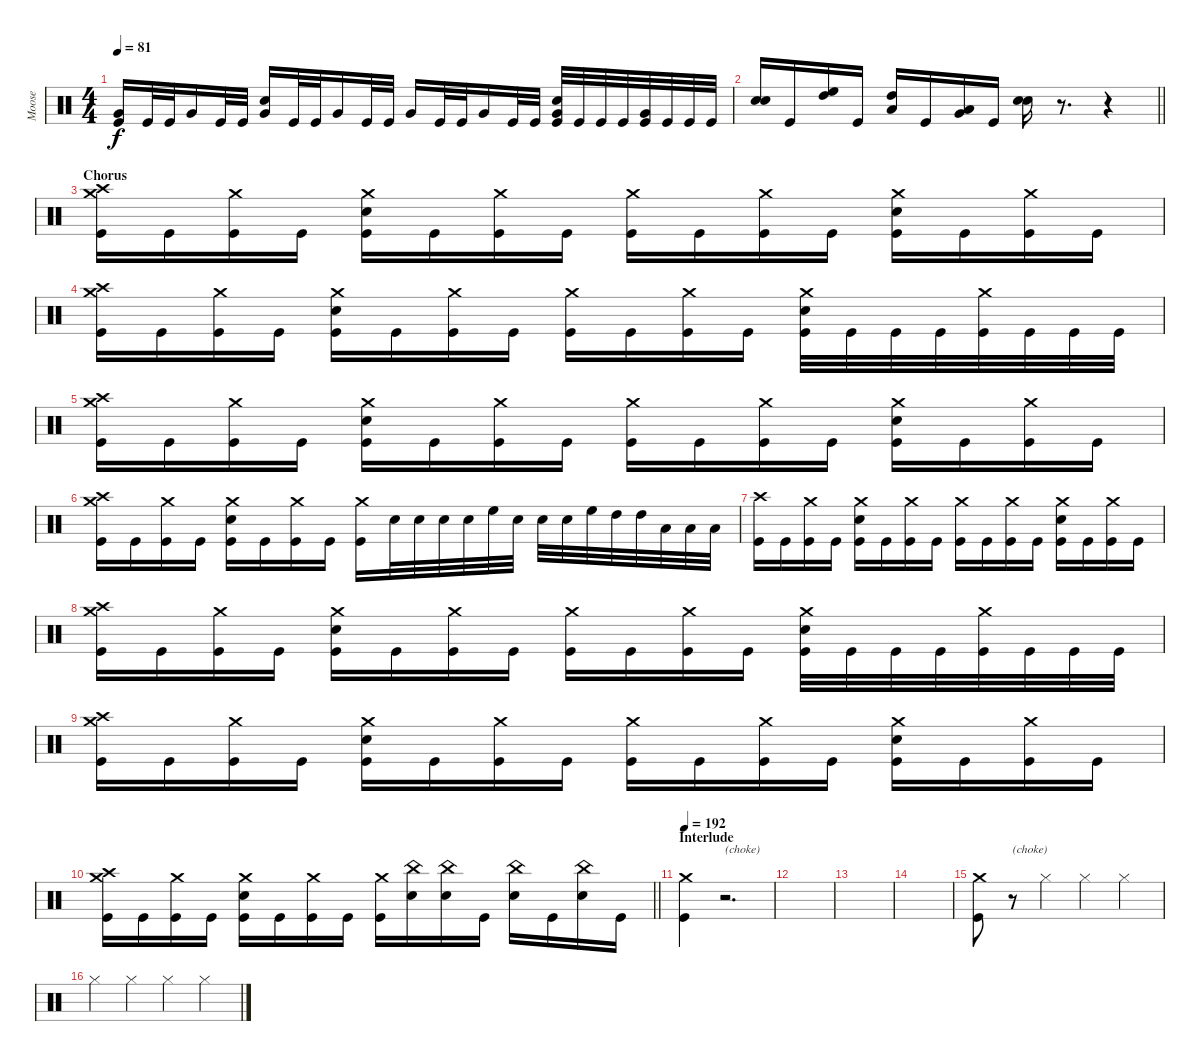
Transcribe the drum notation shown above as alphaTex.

\track ("Moose" "Moose") {instrument percussion}
\staff {score}
\articulation defaults
\ts (4 4)
\tempo 81
\clef neutral
\ks c
("Very Low Tom (hit)" "Kick (hit)").16{dy f} "Kick (hit)".32 "Kick (hit)".32 "Very Low Tom (hit)".16 "Kick (hit)".32 "Kick (hit)".32 ("Electric Snare (hit)" "Very Low Tom (hit)").16 "Kick (hit)".32 "Kick (hit)".32 "Very Low Tom (hit)".16 "Kick (hit)".32 "Kick (hit)".32 "Very Low Tom (hit)".16 "Kick (hit)".32 "Kick (hit)".32 "Very Low Tom (hit)".16 "Kick (hit)".32 "Kick (hit)".32 ("Electric Snare (hit)" "Very Low Tom (hit)" "Kick (hit)").32 "Kick (hit)".32 "Kick (hit)".32 "Kick (hit)".32 ("Very Low Tom (hit)" "Kick (hit)").32 "Kick (hit)".32 "Kick (hit)".32 "Kick (hit)".32 |
\barLineRight lightlight
("Electric Snare (hit)" "Electric Snare (hit)").16{bd 120} "Kick (hit)".16 ("High Floor Tom (hit)" "High Tom (hit)").16{bd 120} "Kick (hit)".16 ("High Tom (hit)" "Low Tom (hit)").16{bd 120} "Kick (hit)".16 ("Low Tom (hit)" "Very Low Tom (hit)").16{bd 120} "Kick (hit)".16 ("Electric Snare (hit)" "Electric Snare (hit)").16{bd 120} r.8{d} r.4 |
\section ("" "Chorus")
("Crash high (hit)" "Crash medium (hit)" "Kick (hit)").16 "Kick (hit)".16 ("Crash medium (hit)" "Kick (hit)").16 "Kick (hit)".16 ("Crash medium (hit)" "Electric Snare (hit)" "Kick (hit)").16 "Kick (hit)".16 ("Crash medium (hit)" "Kick (hit)").16 "Kick (hit)".16 ("Crash medium (hit)" "Kick (hit)").16 "Kick (hit)".16 ("Crash medium (hit)" "Kick (hit)").16 "Kick (hit)".16 ("Crash medium (hit)" "Electric Snare (hit)" "Kick (hit)").16 "Kick (hit)".16 ("Crash medium (hit)" "Kick (hit)").16 "Kick (hit)".16 |
("Crash high (hit)" "Crash medium (hit)" "Kick (hit)").16 "Kick (hit)".16 ("Crash medium (hit)" "Kick (hit)").16 "Kick (hit)".16 ("Crash medium (hit)" "Electric Snare (hit)" "Kick (hit)").16 "Kick (hit)".16 ("Crash medium (hit)" "Kick (hit)").16 "Kick (hit)".16 ("Crash medium (hit)" "Kick (hit)").16 "Kick (hit)".16 ("Crash medium (hit)" "Kick (hit)").16 "Kick (hit)".16 ("Crash medium (hit)" "Electric Snare (hit)" "Kick (hit)").32 "Kick (hit)".32 "Kick (hit)".32 "Kick (hit)".32 ("Crash medium (hit)" "Kick (hit)").32 "Kick (hit)".32 "Kick (hit)".32 "Kick (hit)".32 |
("Crash high (hit)" "Crash medium (hit)" "Kick (hit)").16 "Kick (hit)".16 ("Crash medium (hit)" "Kick (hit)").16 "Kick (hit)".16 ("Crash medium (hit)" "Electric Snare (hit)" "Kick (hit)").16 "Kick (hit)".16 ("Crash medium (hit)" "Kick (hit)").16 "Kick (hit)".16 ("Crash medium (hit)" "Kick (hit)").16 "Kick (hit)".16 ("Crash medium (hit)" "Kick (hit)").16 "Kick (hit)".16 ("Crash medium (hit)" "Electric Snare (hit)" "Kick (hit)").16 "Kick (hit)".16 ("Crash medium (hit)" "Kick (hit)").16 "Kick (hit)".16 |
("Crash high (hit)" "Crash medium (hit)" "Kick (hit)").16 "Kick (hit)".16 ("Crash medium (hit)" "Kick (hit)").16 "Kick (hit)".16 ("Crash medium (hit)" "Electric Snare (hit)" "Kick (hit)").16 "Kick (hit)".16 ("Crash medium (hit)" "Kick (hit)").16 "Kick (hit)".16 ("Crash medium (hit)" "Kick (hit)").16 "Electric Snare (hit)".32 "Electric Snare (hit)".32 "Electric Snare (hit)".32 "Electric Snare (hit)".32 "High Floor Tom (hit)".32 "Electric Snare (hit)".32 "Electric Snare (hit)".32 "Electric Snare (hit)".32 "High Floor Tom (hit)".32 "High Tom (hit)".32 "High Tom (hit)".32 "Low Tom (hit)".32 "Low Tom (hit)".32 "Low Tom (hit)".32 |
("Crash high (hit)" "Kick (hit)").16 "Kick (hit)".16 ("Crash medium (hit)" "Kick (hit)").16 "Kick (hit)".16 ("Crash medium (hit)" "Electric Snare (hit)" "Kick (hit)").16 "Kick (hit)".16 ("Crash medium (hit)" "Kick (hit)").16 "Kick (hit)".16 ("Crash medium (hit)" "Kick (hit)").16 "Kick (hit)".16 ("Crash medium (hit)" "Kick (hit)").16 "Kick (hit)".16 ("Crash medium (hit)" "Electric Snare (hit)" "Kick (hit)").16 "Kick (hit)".16 ("Crash medium (hit)" "Kick (hit)").16 "Kick (hit)".16 |
("Crash high (hit)" "Crash medium (hit)" "Kick (hit)").16 "Kick (hit)".16 ("Crash medium (hit)" "Kick (hit)").16 "Kick (hit)".16 ("Crash medium (hit)" "Electric Snare (hit)" "Kick (hit)").16 "Kick (hit)".16 ("Crash medium (hit)" "Kick (hit)").16 "Kick (hit)".16 ("Crash medium (hit)" "Kick (hit)").16 "Kick (hit)".16 ("Crash medium (hit)" "Kick (hit)").16 "Kick (hit)".16 ("Crash medium (hit)" "Electric Snare (hit)" "Kick (hit)").32 "Kick (hit)".32 "Kick (hit)".32 "Kick (hit)".32 ("Crash medium (hit)" "Kick (hit)").32 "Kick (hit)".32 "Kick (hit)".32 "Kick (hit)".32 |
("Crash high (hit)" "Crash medium (hit)" "Kick (hit)").16 "Kick (hit)".16 ("Crash medium (hit)" "Kick (hit)").16 "Kick (hit)".16 ("Crash medium (hit)" "Electric Snare (hit)" "Kick (hit)").16 "Kick (hit)".16 ("Crash medium (hit)" "Kick (hit)").16 "Kick (hit)".16 ("Crash medium (hit)" "Kick (hit)").16 "Kick (hit)".16 ("Crash medium (hit)" "Kick (hit)").16 "Kick (hit)".16 ("Crash medium (hit)" "Electric Snare (hit)" "Kick (hit)").16 "Kick (hit)".16 ("Crash medium (hit)" "Kick (hit)").16 "Kick (hit)".16 |
\barLineRight lightlight
("Crash high (hit)" "Crash medium (hit)" "Kick (hit)").16 "Kick (hit)".16 ("Crash medium (hit)" "Kick (hit)").16 "Kick (hit)".16 ("Crash medium (hit)" "Electric Snare (hit)" "Kick (hit)").16 "Kick (hit)".16 ("Crash medium (hit)" "Kick (hit)").16 "Kick (hit)".16 ("Crash medium (hit)" "Kick (hit)").16 ("China (hit)" "Electric Snare (hit)").16 ("China (hit)" "Electric Snare (hit)").16 "Kick (hit)".16 ("China (hit)" "Electric Snare (hit)").16 "Kick (hit)".16 ("China (hit)" "Electric Snare (hit)").16 "Kick (hit)".16 |
\section ("" "Interlude")
\tempo 192
("Crash medium (hit)" "Kick (hit)").4 r.2{d txt "(choke)"} |
|
|
|
("Crash medium (hit)" "Kick (hit)").8 r.8{txt "(choke)"} "Hi-Hat (closed)".4 "Hi-Hat (closed)".4 "Hi-Hat (closed)".4 |
"Hi-Hat (closed)".4 "Hi-Hat (closed)".4 "Hi-Hat (closed)".4 "Hi-Hat (closed)".4
